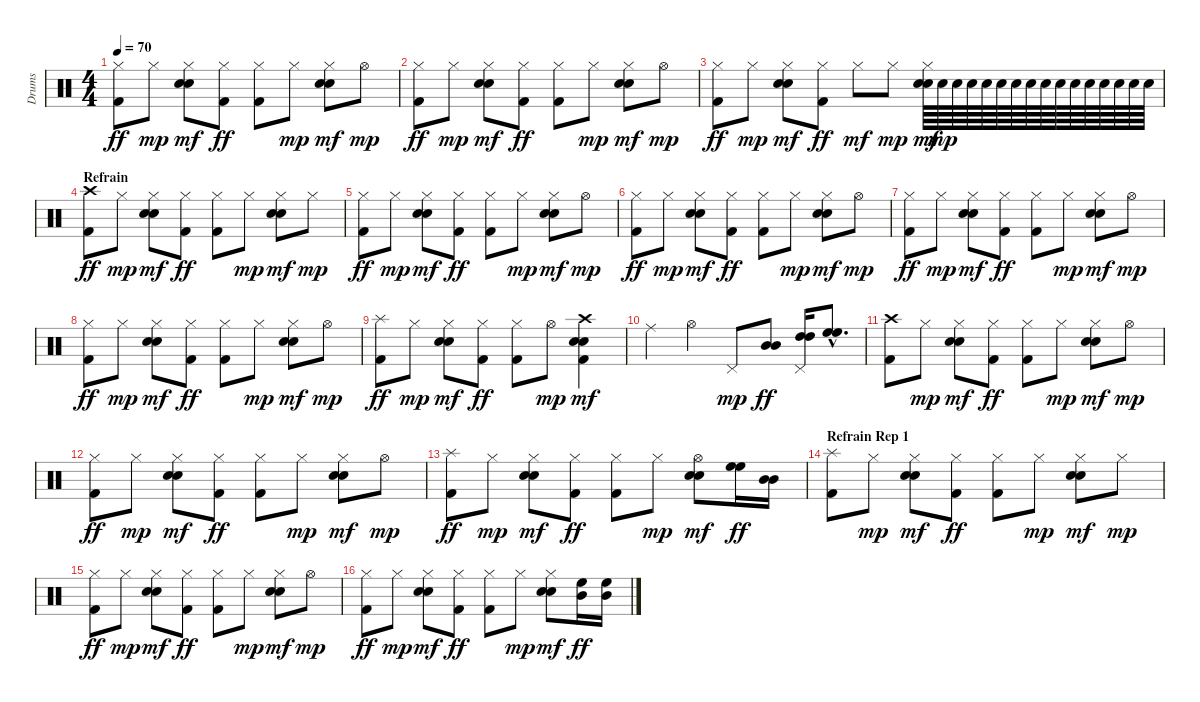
\track ("Drums" "Drums") {instrument percussion}
\staff {score}
\articulation defaults
\ts (4 4)
\tempo 70
\clef neutral
\ks c
("Hi-Hat (closed)" "Kick (hit) 2").8{dy ff} "Hi-Hat (closed)".8{dy mp} ("Hi-Hat (closed)" "Electric Snare (hit)" "Snare (hit) 2").8{dy mf} ("Hi-Hat (closed)" "Kick (hit) 2").8{dy ff} ("Hi-Hat (closed)" "Kick (hit) 2").8 "Hi-Hat (closed)".8{dy mp} ("Hi-Hat (closed)" "Electric Snare (hit)" "Snare (hit) 2").8{dy mf} "Hi-Hat (open)".8{dy mp} |
("Hi-Hat (closed)" "Kick (hit) 2").8{dy ff} "Hi-Hat (closed)".8{dy mp} ("Hi-Hat (closed)" "Electric Snare (hit)" "Snare (hit) 2").8{dy mf} ("Hi-Hat (closed)" "Kick (hit) 2").8{dy ff} ("Hi-Hat (closed)" "Kick (hit) 2").8 "Hi-Hat (closed)".8{dy mp} ("Hi-Hat (closed)" "Electric Snare (hit)" "Snare (hit) 2").8{dy mf} "Hi-Hat (open)".8{dy mp} |
("Hi-Hat (closed)" "Kick (hit) 2").8{dy ff} "Hi-Hat (closed)".8{dy mp} ("Hi-Hat (closed)" "Electric Snare (hit)" "Snare (hit) 2").8{dy mf} ("Hi-Hat (closed)" "Kick (hit) 2").8{dy ff} "Hi-Hat (closed)".8{dy mf} "Hi-Hat (closed)".8{dy mp} ("Hi-Hat (closed)" "Electric Snare (hit)" "Snare (hit) 2").64{dy mf} "Snare (hit) 2".64{dy mp} "Snare (hit) 2".64 "Snare (hit) 2".64 "Snare (hit) 2".64 "Snare (hit) 2".64 "Snare (hit) 2".64 "Snare (hit) 2".64 "Snare (hit) 2".64 "Snare (hit) 2".64 "Snare (hit) 2".64 "Snare (hit) 2".64 "Snare (hit) 2".64 "Snare (hit) 2".64 "Snare (hit) 2".64 "Snare (hit) 2".64 |
\section ("" "Refrain")
("Crash high (hit)" "Kick (hit) 2").8{dy ff} "Hi-Hat (closed)".8{dy mp} ("Hi-Hat (closed)" "Electric Snare (hit)" "Snare (hit) 2").8{dy mf} ("Hi-Hat (closed)" "Kick (hit) 2").8{dy ff} ("Hi-Hat (closed)" "Kick (hit) 2").8 "Hi-Hat (closed)".8{dy mp} ("Hi-Hat (closed)" "Electric Snare (hit)" "Snare (hit) 2").8{dy mf} "Hi-Hat (closed)".8{dy mp} |
("Hi-Hat (closed)" "Kick (hit) 2").8{dy ff} "Hi-Hat (closed)".8{dy mp} ("Hi-Hat (closed)" "Electric Snare (hit)" "Snare (hit) 2").8{dy mf} ("Hi-Hat (closed)" "Kick (hit) 2").8{dy ff} ("Hi-Hat (closed)" "Kick (hit) 2").8 "Hi-Hat (closed)".8{dy mp} ("Hi-Hat (closed)" "Electric Snare (hit)" "Snare (hit) 2").8{dy mf} "Hi-Hat (open)".8{dy mp} |
("Hi-Hat (closed)" "Kick (hit) 2").8{dy ff} "Hi-Hat (closed)".8{dy mp} ("Hi-Hat (closed)" "Electric Snare (hit)" "Snare (hit) 2").8{dy mf} ("Hi-Hat (closed)" "Kick (hit) 2").8{dy ff} ("Hi-Hat (closed)" "Kick (hit) 2").8 "Hi-Hat (closed)".8{dy mp} ("Hi-Hat (closed)" "Electric Snare (hit)" "Snare (hit) 2").8{dy mf} "Hi-Hat (open)".8{dy mp} |
("Hi-Hat (closed)" "Kick (hit) 2").8{dy ff} "Hi-Hat (closed)".8{dy mp} ("Hi-Hat (closed)" "Electric Snare (hit)" "Snare (hit) 2").8{dy mf} ("Hi-Hat (closed)" "Kick (hit) 2").8{dy ff} ("Hi-Hat (closed)" "Kick (hit) 2").8 "Hi-Hat (closed)".8{dy mp} ("Hi-Hat (closed)" "Electric Snare (hit)" "Snare (hit) 2").8{dy mf} "Hi-Hat (open)".8{dy mp} |
("Hi-Hat (closed)" "Kick (hit) 2").8{dy ff} "Hi-Hat (closed)".8{dy mp} ("Hi-Hat (closed)" "Electric Snare (hit)" "Snare (hit) 2").8{dy mf} ("Hi-Hat (closed)" "Kick (hit) 2").8{dy ff} ("Hi-Hat (closed)" "Kick (hit) 2").8 "Hi-Hat (closed)".8{dy mp} ("Hi-Hat (closed)" "Electric Snare (hit)" "Snare (hit) 2").8{dy mf} "Hi-Hat (open)".8{dy mp} |
("Splash (hit)" "Kick (hit) 2").8{dy ff} "Hi-Hat (closed)".8{dy mp} ("Hi-Hat (closed)" "Electric Snare (hit)" "Snare (hit) 2").8{dy mf} ("Hi-Hat (closed)" "Kick (hit) 2").8{dy ff} ("Hi-Hat (closed)" "Kick (hit) 2").8 "Hi-Hat (open)".8{dy mp} ("Crash high (hit)" "Electric Snare (hit)" "Snare (hit) 2" "Kick (hit) 2").4{dy mf} |
"Ride (middle)".4 "Hi-Hat (open)".4 "Pedal Hi-Hat (hit)".8{dy mp} ("Mid Tom (hit)" "Mid Tom (hit)").8{dy ff} ("Pedal Hi-Hat (hit)" "High Tom (hit)" "High Tom (hit)").16 ("High Floor Tom (hit)"{hac} "High Floor Tom (hit)"{hac}).8{d} |
("Crash high (hit)" "Kick (hit) 2").8 "Hi-Hat (closed)".8{dy mp} ("Hi-Hat (closed)" "Electric Snare (hit)" "Snare (hit) 2").8{dy mf} ("Hi-Hat (closed)" "Kick (hit) 2").8{dy ff} ("Hi-Hat (closed)" "Kick (hit) 2").8 "Hi-Hat (closed)".8{dy mp} ("Hi-Hat (closed)" "Electric Snare (hit)" "Snare (hit) 2").8{dy mf} "Hi-Hat (open)".8{dy mp} |
("Hi-Hat (closed)" "Kick (hit) 2").8{dy ff} "Hi-Hat (closed)".8{dy mp} ("Hi-Hat (closed)" "Electric Snare (hit)" "Snare (hit) 2").8{dy mf} ("Hi-Hat (closed)" "Kick (hit) 2").8{dy ff} ("Hi-Hat (closed)" "Kick (hit) 2").8 "Hi-Hat (closed)".8{dy mp} ("Hi-Hat (closed)" "Electric Snare (hit)" "Snare (hit) 2").8{dy mf} "Hi-Hat (open)".8{dy mp} |
("Splash (hit)" "Kick (hit) 2").8{dy ff} "Hi-Hat (closed)".8{dy mp} ("Hi-Hat (closed)" "Electric Snare (hit)" "Snare (hit) 2").8{dy mf} ("Hi-Hat (closed)" "Kick (hit) 2").8{dy ff} ("Hi-Hat (closed)" "Kick (hit) 2").8 "Hi-Hat (closed)".8{dy mp} ("Hi-Hat (open)" "Electric Snare (hit)" "Snare (hit) 2").8{dy mf} ("High Floor Tom (hit)" "High Floor Tom (hit)").16{dy ff} ("Mid Tom (hit)" "Mid Tom (hit)").16 |
\section ("" "Refrain Rep 1")
("Splash (hit)" "Kick (hit) 2").8 "Hi-Hat (closed)".8{dy mp} ("Hi-Hat (closed)" "Electric Snare (hit)" "Snare (hit) 2").8{dy mf} ("Hi-Hat (closed)" "Kick (hit) 2").8{dy ff} ("Hi-Hat (closed)" "Kick (hit) 2").8 "Hi-Hat (closed)".8{dy mp} ("Hi-Hat (closed)" "Electric Snare (hit)" "Snare (hit) 2").8{dy mf} "Hi-Hat (closed)".8{dy mp} |
("Hi-Hat (closed)" "Kick (hit) 2").8{dy ff} "Hi-Hat (closed)".8{dy mp} ("Hi-Hat (closed)" "Electric Snare (hit)" "Snare (hit) 2").8{dy mf} ("Hi-Hat (closed)" "Kick (hit) 2").8{dy ff} ("Hi-Hat (closed)" "Kick (hit) 2").8 "Hi-Hat (closed)".8{dy mp} ("Hi-Hat (closed)" "Electric Snare (hit)" "Snare (hit) 2").8{dy mf} "Hi-Hat (open)".8{dy mp} |
("Hi-Hat (closed)" "Kick (hit) 2").8{dy ff} "Hi-Hat (closed)".8{dy mp} ("Hi-Hat (closed)" "Electric Snare (hit)" "Snare (hit) 2").8{dy mf} ("Hi-Hat (closed)" "Kick (hit) 2").8{dy ff} ("Hi-Hat (closed)" "Kick (hit) 2").8 "Hi-Hat (closed)".8{dy mp} ("Hi-Hat (closed)" "Electric Snare (hit)" "Snare (hit) 2").8{dy mf} ("High Floor Tom (hit)" "Mid Tom (hit)").16{dy ff} ("High Floor Tom (hit)" "Mid Tom (hit)").16
